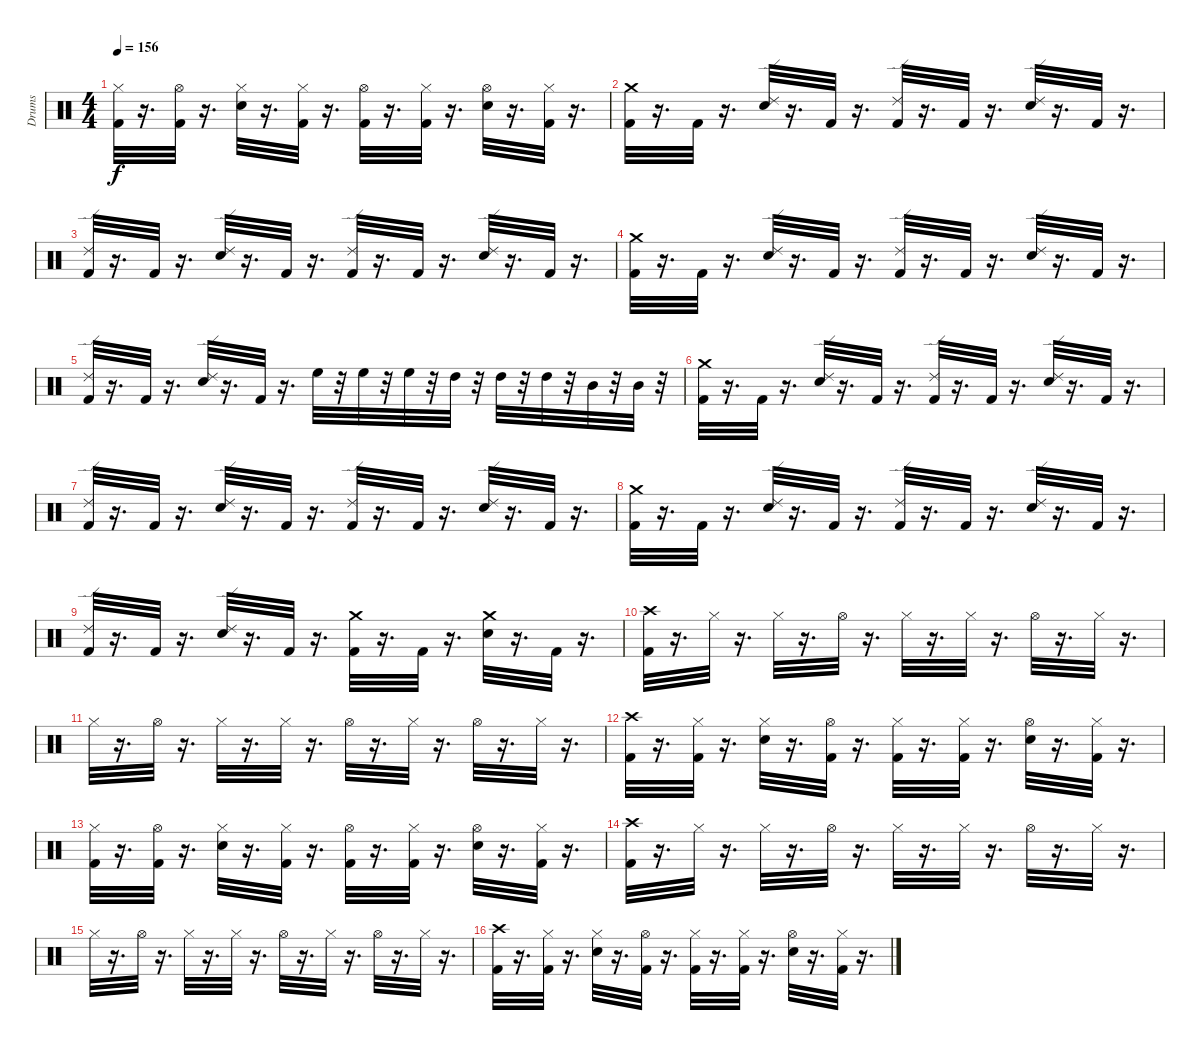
\track ("Drums" "Drums") {instrument percussion}
\staff {score}
\articulation defaults
\ts (4 4)
\tempo 156
\clef neutral
\ks c
("Kick (hit) 2" "Hi-Hat (closed)").32{dy f} r.16{d} ("Kick (hit) 2" "Hi-Hat (open)").32 r.16{d} ("Snare (hit) 2" "Hi-Hat (closed)").32 r.16{d} ("Kick (hit) 2" "Hi-Hat (closed)").32 r.16{d} ("Kick (hit) 2" "Hi-Hat (open)").32 r.16{d} ("Kick (hit) 2" "Hi-Hat (closed)").32 r.16{d} ("Snare (hit) 2" "Hi-Hat (open)").32 r.16{d} ("Kick (hit) 2" "Hi-Hat (closed)").32 r.16{d} |
("Crash medium (hit)" "Kick (hit) 2").32 r.16{d} "Kick (hit) 2".32 r.16{d} ("Ride (edge) 2" "Snare (hit) 2").32 r.16{d} "Kick (hit) 2".32 r.16{d} ("Ride (edge) 2" "Kick (hit) 2").32 r.16{d} "Kick (hit) 2".32 r.16{d} ("Ride (edge) 2" "Snare (hit) 2").32 r.16{d} "Kick (hit) 2".32 r.16{d} |
("Kick (hit) 2" "Ride (edge) 2").32 r.16{d} "Kick (hit) 2".32 r.16{d} ("Ride (edge) 2" "Snare (hit) 2").32 r.16{d} "Kick (hit) 2".32 r.16{d} ("Ride (edge) 2" "Kick (hit) 2").32 r.16{d} "Kick (hit) 2".32 r.16{d} ("Ride (edge) 2" "Snare (hit) 2").32 r.16{d} "Kick (hit) 2".32 r.16{d} |
("Crash medium (hit)" "Kick (hit) 2").32 r.16{d} "Kick (hit) 2".32 r.16{d} ("Ride (edge) 2" "Snare (hit) 2").32 r.16{d} "Kick (hit) 2".32 r.16{d} ("Ride (edge) 2" "Kick (hit) 2").32 r.16{d} "Kick (hit) 2".32 r.16{d} ("Ride (edge) 2" "Snare (hit) 2").32 r.16{d} "Kick (hit) 2".32 r.16{d} |
("Kick (hit) 2" "Ride (edge) 2").32 r.16{d} "Kick (hit) 2".32 r.16{d} ("Ride (edge) 2" "Snare (hit) 2").32 r.16{d} "Kick (hit) 2".32 r.16{d} "High Floor Tom (hit)".32 r.32 "High Floor Tom (hit)".32 r.32 "High Floor Tom (hit)".32 r.32 "High Tom (hit)".32 r.32 "High Tom (hit)".32 r.32 "High Tom (hit)".32 r.32 "Mid Tom (hit)".32 r.32 "Mid Tom (hit)".32 r.32 |
("Crash medium (hit)" "Kick (hit) 2").32 r.16{d} "Kick (hit) 2".32 r.16{d} ("Ride (edge) 2" "Snare (hit) 2").32 r.16{d} "Kick (hit) 2".32 r.16{d} ("Ride (edge) 2" "Kick (hit) 2").32 r.16{d} "Kick (hit) 2".32 r.16{d} ("Ride (edge) 2" "Snare (hit) 2").32 r.16{d} "Kick (hit) 2".32 r.16{d} |
("Kick (hit) 2" "Ride (edge) 2").32 r.16{d} "Kick (hit) 2".32 r.16{d} ("Ride (edge) 2" "Snare (hit) 2").32 r.16{d} "Kick (hit) 2".32 r.16{d} ("Ride (edge) 2" "Kick (hit) 2").32 r.16{d} "Kick (hit) 2".32 r.16{d} ("Ride (edge) 2" "Snare (hit) 2").32 r.16{d} "Kick (hit) 2".32 r.16{d} |
("Crash medium (hit)" "Kick (hit) 2").32 r.16{d} "Kick (hit) 2".32 r.16{d} ("Ride (edge) 2" "Snare (hit) 2").32 r.16{d} "Kick (hit) 2".32 r.16{d} ("Ride (edge) 2" "Kick (hit) 2").32 r.16{d} "Kick (hit) 2".32 r.16{d} ("Ride (edge) 2" "Snare (hit) 2").32 r.16{d} "Kick (hit) 2".32 r.16{d} |
("Kick (hit) 2" "Ride (edge) 2").32 r.16{d} "Kick (hit) 2".32 r.16{d} ("Ride (edge) 2" "Snare (hit) 2").32 r.16{d} "Kick (hit) 2".32 r.16{d} ("Crash medium (hit)" "Kick (hit) 2").32 r.16{d} "Kick (hit) 2".32 r.16{d} ("Snare (hit) 2" "Crash medium (hit)").32 r.16{d} "Kick (hit) 2".32 r.16{d} |
("Crash high (hit)" "Kick (hit) 2").32 r.16{d} "Hi-Hat (closed)".32 r.16{d} "Hi-Hat (closed)".32 r.16{d} "Hi-Hat (open)".32 r.16{d} "Hi-Hat (closed)".32 r.16{d} "Hi-Hat (closed)".32 r.16{d} "Hi-Hat (open)".32 r.16{d} "Hi-Hat (closed)".32 r.16{d} |
"Hi-Hat (closed)".32 r.16{d} "Hi-Hat (open)".32 r.16{d} "Hi-Hat (closed)".32 r.16{d} "Hi-Hat (closed)".32 r.16{d} "Hi-Hat (open)".32 r.16{d} "Hi-Hat (closed)".32 r.16{d} "Hi-Hat (open)".32 r.16{d} "Hi-Hat (closed)".32 r.16{d} |
("Crash high (hit)" "Kick (hit) 2").32 r.16{d} ("Kick (hit) 2" "Hi-Hat (closed)").32 r.16{d} ("Snare (hit) 2" "Hi-Hat (closed)").32 r.16{d} ("Kick (hit) 2" "Hi-Hat (open)").32 r.16{d} ("Kick (hit) 2" "Hi-Hat (closed)").32 r.16{d} ("Kick (hit) 2" "Hi-Hat (closed)").32 r.16{d} ("Snare (hit) 2" "Hi-Hat (open)").32 r.16{d} ("Kick (hit) 2" "Hi-Hat (closed)").32 r.16{d} |
("Kick (hit) 2" "Hi-Hat (closed)").32 r.16{d} ("Kick (hit) 2" "Hi-Hat (open)").32 r.16{d} ("Snare (hit) 2" "Hi-Hat (closed)").32 r.16{d} ("Kick (hit) 2" "Hi-Hat (closed)").32 r.16{d} ("Kick (hit) 2" "Hi-Hat (open)").32 r.16{d} ("Kick (hit) 2" "Hi-Hat (closed)").32 r.16{d} ("Snare (hit) 2" "Hi-Hat (open)").32 r.16{d} ("Kick (hit) 2" "Hi-Hat (closed)").32 r.16{d} |
("Crash high (hit)" "Kick (hit) 2").32 r.16{d} "Hi-Hat (closed)".32 r.16{d} "Hi-Hat (closed)".32 r.16{d} "Hi-Hat (open)".32 r.16{d} "Hi-Hat (closed)".32 r.16{d} "Hi-Hat (closed)".32 r.16{d} "Hi-Hat (open)".32 r.16{d} "Hi-Hat (closed)".32 r.16{d} |
"Hi-Hat (closed)".32 r.16{d} "Hi-Hat (open)".32 r.16{d} "Hi-Hat (closed)".32 r.16{d} "Hi-Hat (closed)".32 r.16{d} "Hi-Hat (open)".32 r.16{d} "Hi-Hat (closed)".32 r.16{d} "Hi-Hat (open)".32 r.16{d} "Hi-Hat (closed)".32 r.16{d} |
("Crash high (hit)" "Kick (hit) 2").32 r.16{d} ("Kick (hit) 2" "Hi-Hat (closed)").32 r.16{d} ("Snare (hit) 2" "Hi-Hat (closed)").32 r.16{d} ("Kick (hit) 2" "Hi-Hat (open)").32 r.16{d} ("Kick (hit) 2" "Hi-Hat (closed)").32 r.16{d} ("Kick (hit) 2" "Hi-Hat (closed)").32 r.16{d} ("Snare (hit) 2" "Hi-Hat (open)").32 r.16{d} ("Kick (hit) 2" "Hi-Hat (closed)").32 r.16{d}
